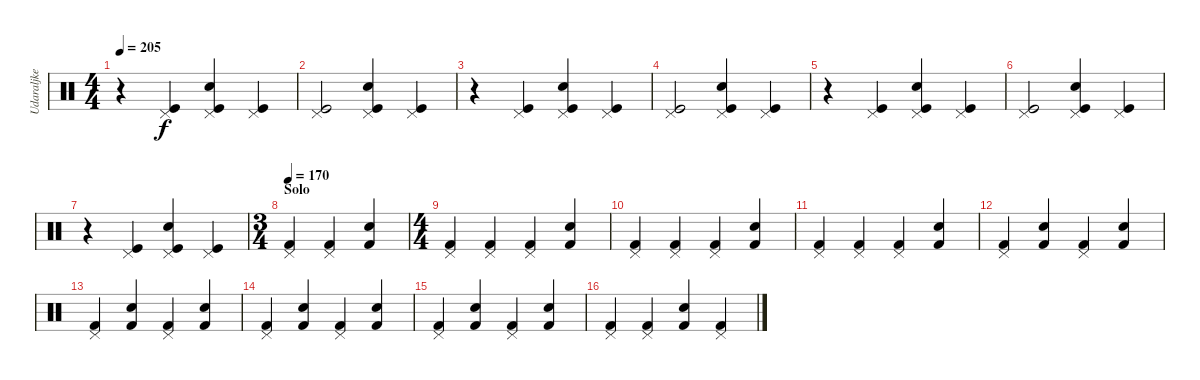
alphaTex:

\track ("Udaraljke" "Udaraljke") {instrument percussion}
\staff {score}
\articulation defaults
\ts (4 4)
\tempo 205
\clef neutral
\ks c
r.4{dy f} ("Kick (hit)" "Pedal Hi-Hat (hit)").4 ("Kick (hit)" "Snare (hit) 2" "Pedal Hi-Hat (hit)").4 ("Kick (hit)" "Pedal Hi-Hat (hit)").4 |
("Kick (hit)" "Pedal Hi-Hat (hit)").2 ("Kick (hit)" "Snare (hit) 2" "Pedal Hi-Hat (hit)").4 ("Kick (hit)" "Pedal Hi-Hat (hit)").4 |
r.4 ("Kick (hit)" "Pedal Hi-Hat (hit)").4 ("Kick (hit)" "Snare (hit) 2" "Pedal Hi-Hat (hit)").4 ("Kick (hit)" "Pedal Hi-Hat (hit)").4 |
("Kick (hit)" "Pedal Hi-Hat (hit)").2 ("Kick (hit)" "Snare (hit) 2" "Pedal Hi-Hat (hit)").4 ("Kick (hit)" "Pedal Hi-Hat (hit)").4 |
r.4 ("Kick (hit)" "Pedal Hi-Hat (hit)").4 ("Kick (hit)" "Snare (hit) 2" "Pedal Hi-Hat (hit)").4 ("Kick (hit)" "Pedal Hi-Hat (hit)").4 |
("Kick (hit)" "Pedal Hi-Hat (hit)").2 ("Kick (hit)" "Snare (hit) 2" "Pedal Hi-Hat (hit)").4 ("Kick (hit)" "Pedal Hi-Hat (hit)").4 |
r.4 ("Kick (hit)" "Pedal Hi-Hat (hit)").4 ("Kick (hit)" "Snare (hit) 2" "Pedal Hi-Hat (hit)").4 ("Kick (hit)" "Pedal Hi-Hat (hit)").4 |
\ts (3 4)
\section ("" "Solo")
\tempo 140
\tempo 170
("Kick (hit) 2" "Pedal Hi-Hat (hit)").4 ("Kick (hit) 2" "Pedal Hi-Hat (hit)").4 ("Kick (hit) 2" "Electric Snare (hit)").4 |
\ts (4 4)
("Kick (hit) 2" "Pedal Hi-Hat (hit)").4 ("Kick (hit) 2" "Pedal Hi-Hat (hit)").4 ("Kick (hit) 2" "Pedal Hi-Hat (hit)").4 ("Kick (hit) 2" "Electric Snare (hit)").4 |
("Kick (hit) 2" "Pedal Hi-Hat (hit)").4 ("Kick (hit) 2" "Pedal Hi-Hat (hit)").4 ("Kick (hit) 2" "Pedal Hi-Hat (hit)").4 ("Kick (hit) 2" "Electric Snare (hit)").4 |
("Kick (hit) 2" "Pedal Hi-Hat (hit)").4 ("Kick (hit) 2" "Pedal Hi-Hat (hit)").4 ("Kick (hit) 2" "Pedal Hi-Hat (hit)").4 ("Kick (hit) 2" "Electric Snare (hit)").4 |
("Kick (hit) 2" "Pedal Hi-Hat (hit)").4 ("Kick (hit) 2" "Electric Snare (hit)").4 ("Kick (hit) 2" "Pedal Hi-Hat (hit)").4 ("Kick (hit) 2" "Electric Snare (hit)").4 |
("Kick (hit) 2" "Pedal Hi-Hat (hit)").4 ("Kick (hit) 2" "Electric Snare (hit)").4 ("Kick (hit) 2" "Pedal Hi-Hat (hit)").4 ("Kick (hit) 2" "Electric Snare (hit)").4 |
("Kick (hit) 2" "Pedal Hi-Hat (hit)").4 ("Kick (hit) 2" "Electric Snare (hit)").4 ("Kick (hit) 2" "Pedal Hi-Hat (hit)").4 ("Kick (hit) 2" "Electric Snare (hit)").4 |
("Kick (hit) 2" "Pedal Hi-Hat (hit)").4 ("Kick (hit) 2" "Electric Snare (hit)").4 ("Kick (hit) 2" "Pedal Hi-Hat (hit)").4 ("Kick (hit) 2" "Electric Snare (hit)").4 |
("Kick (hit) 2" "Pedal Hi-Hat (hit)").4 ("Kick (hit) 2" "Pedal Hi-Hat (hit)").4 ("Kick (hit) 2" "Electric Snare (hit)").4 ("Kick (hit) 2" "Pedal Hi-Hat (hit)").4
